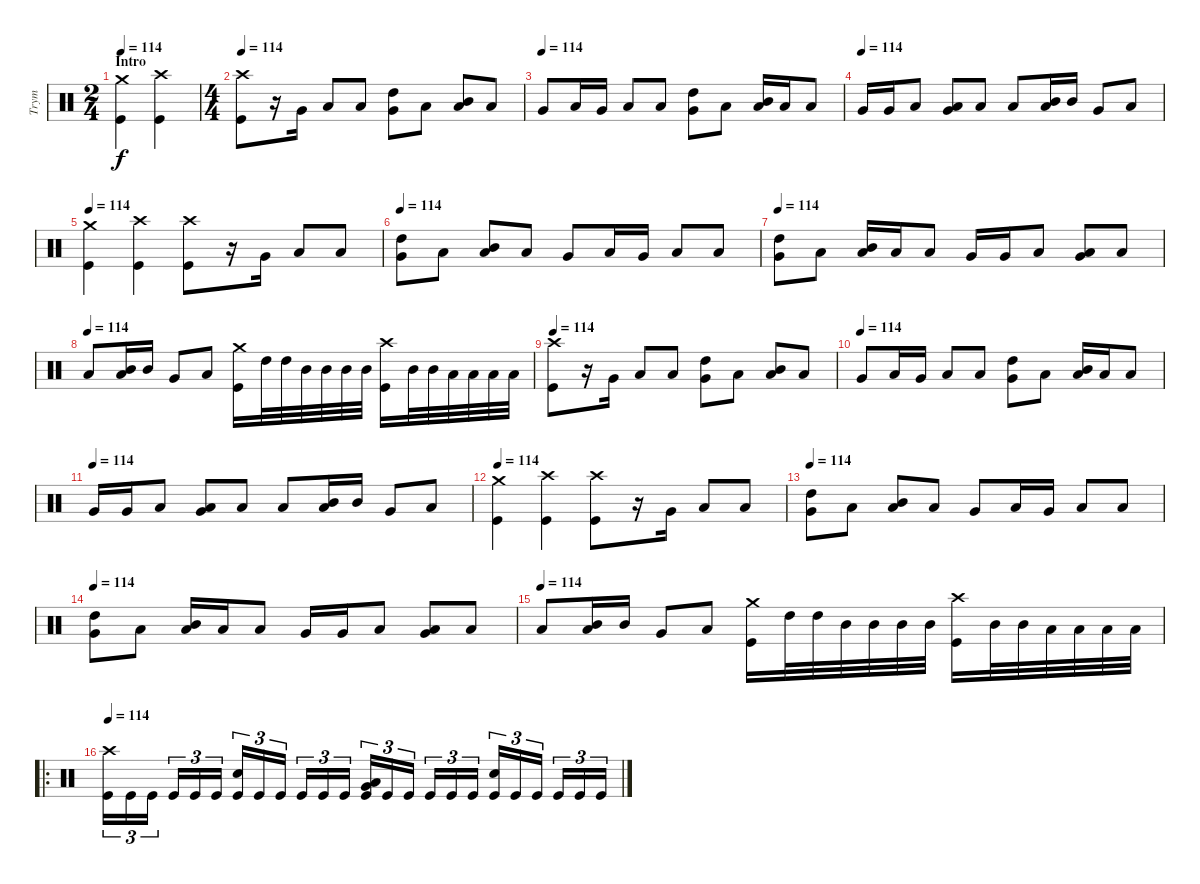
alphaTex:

\track ("Trym" "Trym") {instrument percussion}
\staff {score}
\articulation defaults
\ts (2 4)
\section ("" "Intro")
\tempo 114
\clef neutral
\ks c
("Crash medium (hit)" "Kick (hit)").4{dy f} ("Crash high (hit)" "Kick (hit)").4 |
\ts (4 4)
\tempo 114
("Crash high (hit)" "Kick (hit)").8 r.16 "Very Low Tom (hit)".16 "Low Floor Tom (hit)".8 "Low Floor Tom (hit)".8 ("High Tom (hit)" "Very Low Tom (hit)").8 "Low Floor Tom (hit)".8 ("Mid Tom (hit)" "Low Floor Tom (hit)").8 "Low Floor Tom (hit)".8 |
\tempo (114)
"Very Low Tom (hit)".8 "Low Tom (hit)".16 "Very Low Tom (hit)".16 "Low Floor Tom (hit)".8 "Low Floor Tom (hit)".8 ("High Tom (hit)" "Very Low Tom (hit)").8 "Low Floor Tom (hit)".8 ("Mid Tom (hit)" "Low Floor Tom (hit)").16 "Low Tom (hit)".16 "Low Floor Tom (hit)".8 |
\tempo (114)
"Very Low Tom (hit)".16 "Very Low Tom (hit)".16 "Low Floor Tom (hit)".8 ("Low Tom (hit)" "Very Low Tom (hit)").8 "Low Floor Tom (hit)".8 "Low Floor Tom (hit)".8 ("Mid Tom (hit)" "Low Floor Tom (hit)").16 "Mid Tom (hit)".16 "Very Low Tom (hit)".8 "Low Floor Tom (hit)".8 |
\tempo 114
("Crash medium (hit)" "Kick (hit)").4 ("Crash high (hit)" "Kick (hit)").4 ("Crash high (hit)" "Kick (hit)").8 r.16 "Very Low Tom (hit)".16 "Low Floor Tom (hit)".8 "Low Floor Tom (hit)".8 |
\tempo 114
("High Tom (hit)" "Very Low Tom (hit)").8 "Low Floor Tom (hit)".8 ("Mid Tom (hit)" "Low Floor Tom (hit)").8 "Low Floor Tom (hit)".8 "Very Low Tom (hit)".8 "Low Tom (hit)".16 "Very Low Tom (hit)".16 "Low Floor Tom (hit)".8 "Low Floor Tom (hit)".8 |
\tempo 114
("High Tom (hit)" "Very Low Tom (hit)").8 "Low Floor Tom (hit)".8 ("Mid Tom (hit)" "Low Floor Tom (hit)").16 "Low Tom (hit)".16 "Low Floor Tom (hit)".8 "Very Low Tom (hit)".16 "Very Low Tom (hit)".16 "Low Floor Tom (hit)".8 ("Low Tom (hit)" "Very Low Tom (hit)").8 "Low Floor Tom (hit)".8 |
\tempo (114)
"Low Floor Tom (hit)".8 ("Mid Tom (hit)" "Low Floor Tom (hit)").16 "Mid Tom (hit)".16 "Very Low Tom (hit)".8 "Low Floor Tom (hit)".8 ("Crash medium (hit)" "Kick (hit)").16 "High Tom (hit)".32 "High Tom (hit)".32 "Mid Tom (hit)".32 "Mid Tom (hit)".32 "Mid Tom (hit)".32 "Mid Tom (hit)".32 ("Crash high (hit)" "Kick (hit)").16 "Mid Tom (hit)".32 "Mid Tom (hit)".32 "Low Tom (hit)".32 "Low Tom (hit)".32 "Low Tom (hit)".32 "Low Tom (hit)".32 |
\tempo 114
("Crash high (hit)" "Kick (hit)").8 r.16 "Very Low Tom (hit)".16 "Low Floor Tom (hit)".8 "Low Floor Tom (hit)".8 ("High Tom (hit)" "Very Low Tom (hit)").8 "Low Floor Tom (hit)".8 ("Mid Tom (hit)" "Low Floor Tom (hit)").8 "Low Floor Tom (hit)".8 |
\tempo (114)
"Very Low Tom (hit)".8 "Low Tom (hit)".16 "Very Low Tom (hit)".16 "Low Floor Tom (hit)".8 "Low Floor Tom (hit)".8 ("High Tom (hit)" "Very Low Tom (hit)").8 "Low Floor Tom (hit)".8 ("Mid Tom (hit)" "Low Floor Tom (hit)").16 "Low Tom (hit)".16 "Low Floor Tom (hit)".8 |
\tempo (114)
"Very Low Tom (hit)".16 "Very Low Tom (hit)".16 "Low Floor Tom (hit)".8 ("Low Tom (hit)" "Very Low Tom (hit)").8 "Low Floor Tom (hit)".8 "Low Floor Tom (hit)".8 ("Mid Tom (hit)" "Low Floor Tom (hit)").16 "Mid Tom (hit)".16 "Very Low Tom (hit)".8 "Low Floor Tom (hit)".8 |
\tempo 114
("Crash medium (hit)" "Kick (hit)").4 ("Crash high (hit)" "Kick (hit)").4 ("Crash high (hit)" "Kick (hit)").8 r.16 "Very Low Tom (hit)".16 "Low Floor Tom (hit)".8 "Low Floor Tom (hit)".8 |
\tempo 114
("High Tom (hit)" "Very Low Tom (hit)").8 "Low Floor Tom (hit)".8 ("Mid Tom (hit)" "Low Floor Tom (hit)").8 "Low Floor Tom (hit)".8 "Very Low Tom (hit)".8 "Low Tom (hit)".16 "Very Low Tom (hit)".16 "Low Floor Tom (hit)".8 "Low Floor Tom (hit)".8 |
\tempo 114
("High Tom (hit)" "Very Low Tom (hit)").8 "Low Floor Tom (hit)".8 ("Mid Tom (hit)" "Low Floor Tom (hit)").16 "Low Tom (hit)".16 "Low Floor Tom (hit)".8 "Very Low Tom (hit)".16 "Very Low Tom (hit)".16 "Low Floor Tom (hit)".8 ("Low Tom (hit)" "Very Low Tom (hit)").8 "Low Floor Tom (hit)".8 |
\tempo (114)
"Low Floor Tom (hit)".8 ("Mid Tom (hit)" "Low Floor Tom (hit)").16 "Mid Tom (hit)".16 "Very Low Tom (hit)".8 "Low Floor Tom (hit)".8 ("Crash medium (hit)" "Kick (hit)").16 "High Tom (hit)".32 "High Tom (hit)".32 "Mid Tom (hit)".32 "Mid Tom (hit)".32 "Mid Tom (hit)".32 "Mid Tom (hit)".32 ("Crash high (hit)" "Kick (hit)").16 "Mid Tom (hit)".32 "Mid Tom (hit)".32 "Low Tom (hit)".32 "Low Tom (hit)".32 "Low Tom (hit)".32 "Low Tom (hit)".32 |
\ro
\tempo 114
("Crash high (hit)" "Kick (hit)").16{tu (3 2)} "Kick (hit)".16{tu (3 2)} "Kick (hit)".16{tu (3 2)} "Kick (hit)".16{tu (3 2)} "Kick (hit)".16{tu (3 2)} "Kick (hit)".16{tu (3 2)} ("Electric Snare (hit)" "Kick (hit)").16{tu (3 2)} "Kick (hit)".16{tu (3 2)} "Kick (hit)".16{tu (3 2)} "Kick (hit)".16{tu (3 2)} "Kick (hit)".16{tu (3 2)} "Kick (hit)".16{tu (3 2)} ("Low Floor Tom (hit)" "Very Low Tom (hit)" "Kick (hit)").16{tu (3 2)} "Kick (hit)".16{tu (3 2)} "Kick (hit)".16{tu (3 2)} "Kick (hit)".16{tu (3 2)} "Kick (hit)".16{tu (3 2)} "Kick (hit)".16{tu (3 2)} ("Electric Snare (hit)" "Kick (hit)").16{tu (3 2)} "Kick (hit)".16{tu (3 2)} "Kick (hit)".16{tu (3 2)} "Kick (hit)".16{tu (3 2)} "Kick (hit)".16{tu (3 2)} "Kick (hit)".16{tu (3 2)}
